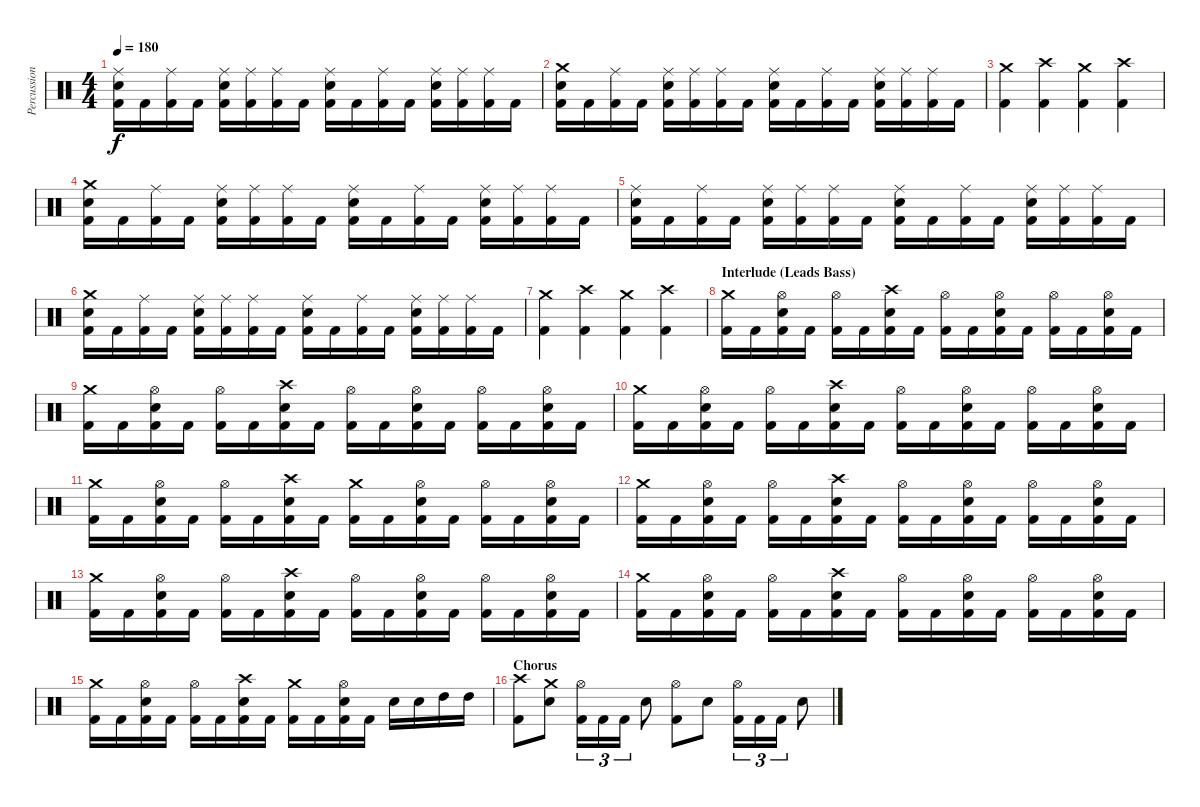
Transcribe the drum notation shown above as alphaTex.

\track ("Percussion" "Percussion") {instrument percussion}
\staff {score}
\articulation defaults
\ts (4 4)
\tempo 180
\clef neutral
\ks c
("Ride (middle)" "Snare (hit) 2" "Kick (hit) 2").16{dy f} "Kick (hit) 2".16 ("Ride (middle)" "Kick (hit) 2").16 "Kick (hit) 2".16 ("Ride (middle)" "Snare (hit) 2" "Kick (hit) 2").16 ("Ride (middle)" "Kick (hit) 2").16 ("Ride (middle)" "Kick (hit) 2").16 "Kick (hit) 2".16 ("Ride (middle)" "Snare (hit) 2" "Kick (hit) 2").16 "Kick (hit) 2".16 ("Ride (middle)" "Kick (hit) 2").16 "Kick (hit) 2".16 ("Ride (middle)" "Snare (hit) 2" "Kick (hit) 2").16 ("Ride (middle)" "Kick (hit) 2").16 ("Ride (middle)" "Kick (hit) 2").16 "Kick (hit) 2".16 |
("Crash medium (hit)" "Snare (hit) 2" "Kick (hit) 2").16 "Kick (hit) 2".16 ("Ride (middle)" "Kick (hit) 2").16 "Kick (hit) 2".16 ("Ride (middle)" "Snare (hit) 2" "Kick (hit) 2").16 ("Ride (middle)" "Kick (hit) 2").16 ("Ride (middle)" "Kick (hit) 2").16 "Kick (hit) 2".16 ("Ride (middle)" "Snare (hit) 2" "Kick (hit) 2").16 "Kick (hit) 2".16 ("Ride (middle)" "Kick (hit) 2").16 "Kick (hit) 2".16 ("Ride (middle)" "Snare (hit) 2" "Kick (hit) 2").16 ("Ride (middle)" "Kick (hit) 2").16 ("Ride (middle)" "Kick (hit) 2").16 "Kick (hit) 2".16 |
("Crash medium (hit)" "Kick (hit) 2").4 ("Crash high (hit)" "Kick (hit) 2").4 ("Crash medium (hit)" "Kick (hit) 2").4 ("Crash high (hit)" "Kick (hit) 2").4 |
("Crash medium (hit)" "Snare (hit) 2" "Kick (hit) 2").16 "Kick (hit) 2".16 ("Ride (middle)" "Kick (hit) 2").16 "Kick (hit) 2".16 ("Ride (middle)" "Snare (hit) 2" "Kick (hit) 2").16 ("Ride (middle)" "Kick (hit) 2").16 ("Ride (middle)" "Kick (hit) 2").16 "Kick (hit) 2".16 ("Ride (middle)" "Snare (hit) 2" "Kick (hit) 2").16 "Kick (hit) 2".16 ("Ride (middle)" "Kick (hit) 2").16 "Kick (hit) 2".16 ("Ride (middle)" "Snare (hit) 2" "Kick (hit) 2").16 ("Ride (middle)" "Kick (hit) 2").16 ("Ride (middle)" "Kick (hit) 2").16 "Kick (hit) 2".16 |
("Ride (middle)" "Snare (hit) 2" "Kick (hit) 2").16 "Kick (hit) 2".16 ("Ride (middle)" "Kick (hit) 2").16 "Kick (hit) 2".16 ("Ride (middle)" "Snare (hit) 2" "Kick (hit) 2").16 ("Ride (middle)" "Kick (hit) 2").16 ("Ride (middle)" "Kick (hit) 2").16 "Kick (hit) 2".16 ("Ride (middle)" "Snare (hit) 2" "Kick (hit) 2").16 "Kick (hit) 2".16 ("Ride (middle)" "Kick (hit) 2").16 "Kick (hit) 2".16 ("Ride (middle)" "Snare (hit) 2" "Kick (hit) 2").16 ("Ride (middle)" "Kick (hit) 2").16 ("Ride (middle)" "Kick (hit) 2").16 "Kick (hit) 2".16 |
("Crash medium (hit)" "Snare (hit) 2" "Kick (hit) 2").16 "Kick (hit) 2".16 ("Ride (middle)" "Kick (hit) 2").16 "Kick (hit) 2".16 ("Ride (middle)" "Snare (hit) 2" "Kick (hit) 2").16 ("Ride (middle)" "Kick (hit) 2").16 ("Ride (middle)" "Kick (hit) 2").16 "Kick (hit) 2".16 ("Ride (middle)" "Snare (hit) 2" "Kick (hit) 2").16 "Kick (hit) 2".16 ("Ride (middle)" "Kick (hit) 2").16 "Kick (hit) 2".16 ("Ride (middle)" "Snare (hit) 2" "Kick (hit) 2").16 ("Ride (middle)" "Kick (hit) 2").16 ("Ride (middle)" "Kick (hit) 2").16 "Kick (hit) 2".16 |
("Crash medium (hit)" "Kick (hit) 2").4 ("Crash high (hit)" "Kick (hit) 2").4 ("Crash medium (hit)" "Kick (hit) 2").4 ("Crash high (hit)" "Kick (hit) 2").4 |
\section ("" "Interlude (Leads Bass)")
("Crash medium (hit)" "Kick (hit) 2").16 "Kick (hit) 2".16 ("Hi-Hat (open)" "Snare (hit) 2" "Kick (hit) 2").16 "Kick (hit) 2".16 ("Hi-Hat (open)" "Kick (hit) 2").16 "Kick (hit) 2".16 ("Crash high (hit)" "Snare (hit) 2" "Kick (hit) 2").16 "Kick (hit) 2".16 ("Hi-Hat (open)" "Kick (hit) 2").16 "Kick (hit) 2".16 ("Hi-Hat (open)" "Snare (hit) 2" "Kick (hit) 2").16 "Kick (hit) 2".16 ("Hi-Hat (open)" "Kick (hit) 2").16 "Kick (hit) 2".16 ("Hi-Hat (open)" "Snare (hit) 2" "Kick (hit) 2").16 "Kick (hit) 2".16 |
("Crash medium (hit)" "Kick (hit) 2").16 "Kick (hit) 2".16 ("Hi-Hat (open)" "Snare (hit) 2" "Kick (hit) 2").16 "Kick (hit) 2".16 ("Hi-Hat (open)" "Kick (hit) 2").16 "Kick (hit) 2".16 ("Crash high (hit)" "Snare (hit) 2" "Kick (hit) 2").16 "Kick (hit) 2".16 ("Hi-Hat (open)" "Kick (hit) 2").16 "Kick (hit) 2".16 ("Hi-Hat (open)" "Snare (hit) 2" "Kick (hit) 2").16 "Kick (hit) 2".16 ("Hi-Hat (open)" "Kick (hit) 2").16 "Kick (hit) 2".16 ("Hi-Hat (open)" "Snare (hit) 2" "Kick (hit) 2").16 "Kick (hit) 2".16 |
("Crash medium (hit)" "Kick (hit) 2").16 "Kick (hit) 2".16 ("Hi-Hat (open)" "Snare (hit) 2" "Kick (hit) 2").16 "Kick (hit) 2".16 ("Hi-Hat (open)" "Kick (hit) 2").16 "Kick (hit) 2".16 ("Crash high (hit)" "Snare (hit) 2" "Kick (hit) 2").16 "Kick (hit) 2".16 ("Hi-Hat (open)" "Kick (hit) 2").16 "Kick (hit) 2".16 ("Hi-Hat (open)" "Snare (hit) 2" "Kick (hit) 2").16 "Kick (hit) 2".16 ("Hi-Hat (open)" "Kick (hit) 2").16 "Kick (hit) 2".16 ("Hi-Hat (open)" "Snare (hit) 2" "Kick (hit) 2").16 "Kick (hit) 2".16 |
("Crash medium (hit)" "Kick (hit) 2").16 "Kick (hit) 2".16 ("Hi-Hat (open)" "Snare (hit) 2" "Kick (hit) 2").16 "Kick (hit) 2".16 ("Hi-Hat (open)" "Kick (hit) 2").16 "Kick (hit) 2".16 ("Crash high (hit)" "Snare (hit) 2" "Kick (hit) 2").16 "Kick (hit) 2".16 ("Crash medium (hit)" "Kick (hit) 2").16 "Kick (hit) 2".16 ("Hi-Hat (open)" "Snare (hit) 2" "Kick (hit) 2").16 "Kick (hit) 2".16 ("Hi-Hat (open)" "Kick (hit) 2").16 "Kick (hit) 2".16 ("Hi-Hat (open)" "Snare (hit) 2" "Kick (hit) 2").16 "Kick (hit) 2".16 |
("Crash medium (hit)" "Kick (hit) 2").16 "Kick (hit) 2".16 ("Hi-Hat (open)" "Snare (hit) 2" "Kick (hit) 2").16 "Kick (hit) 2".16 ("Hi-Hat (open)" "Kick (hit) 2").16 "Kick (hit) 2".16 ("Crash high (hit)" "Snare (hit) 2" "Kick (hit) 2").16 "Kick (hit) 2".16 ("Hi-Hat (open)" "Kick (hit) 2").16 "Kick (hit) 2".16 ("Hi-Hat (open)" "Snare (hit) 2" "Kick (hit) 2").16 "Kick (hit) 2".16 ("Hi-Hat (open)" "Kick (hit) 2").16 "Kick (hit) 2".16 ("Hi-Hat (open)" "Snare (hit) 2" "Kick (hit) 2").16 "Kick (hit) 2".16 |
("Crash medium (hit)" "Kick (hit) 2").16 "Kick (hit) 2".16 ("Hi-Hat (open)" "Snare (hit) 2" "Kick (hit) 2").16 "Kick (hit) 2".16 ("Hi-Hat (open)" "Kick (hit) 2").16 "Kick (hit) 2".16 ("Crash high (hit)" "Snare (hit) 2" "Kick (hit) 2").16 "Kick (hit) 2".16 ("Hi-Hat (open)" "Kick (hit) 2").16 "Kick (hit) 2".16 ("Hi-Hat (open)" "Snare (hit) 2" "Kick (hit) 2").16 "Kick (hit) 2".16 ("Hi-Hat (open)" "Kick (hit) 2").16 "Kick (hit) 2".16 ("Hi-Hat (open)" "Snare (hit) 2" "Kick (hit) 2").16 "Kick (hit) 2".16 |
("Crash medium (hit)" "Kick (hit) 2").16 "Kick (hit) 2".16 ("Hi-Hat (open)" "Snare (hit) 2" "Kick (hit) 2").16 "Kick (hit) 2".16 ("Hi-Hat (open)" "Kick (hit) 2").16 "Kick (hit) 2".16 ("Crash high (hit)" "Snare (hit) 2" "Kick (hit) 2").16 "Kick (hit) 2".16 ("Hi-Hat (open)" "Kick (hit) 2").16 "Kick (hit) 2".16 ("Hi-Hat (open)" "Snare (hit) 2" "Kick (hit) 2").16 "Kick (hit) 2".16 ("Hi-Hat (open)" "Kick (hit) 2").16 "Kick (hit) 2".16 ("Hi-Hat (open)" "Snare (hit) 2" "Kick (hit) 2").16 "Kick (hit) 2".16 |
("Crash medium (hit)" "Kick (hit) 2").16 "Kick (hit) 2".16 ("Hi-Hat (open)" "Snare (hit) 2" "Kick (hit) 2").16 "Kick (hit) 2".16 ("Hi-Hat (open)" "Kick (hit) 2").16 "Kick (hit) 2".16 ("Crash high (hit)" "Snare (hit) 2" "Kick (hit) 2").16 "Kick (hit) 2".16 ("Crash medium (hit)" "Kick (hit) 2").16 "Kick (hit) 2".16 ("Hi-Hat (open)" "Snare (hit) 2" "Kick (hit) 2").16 "Kick (hit) 2".16 "Snare (hit) 2".16 "Snare (hit) 2".16 "High Tom (hit)".16 "High Tom (hit)".16 |
\section ("" "Chorus")
("Crash high (hit)" "Kick (hit) 2").8 ("Crash medium (hit)" "Snare (hit) 2").8 ("Hi-Hat (open)" "Kick (hit) 2").16{tu (3 2)} "Kick (hit) 2".16{tu (3 2)} "Kick (hit) 2".16{tu (3 2)} "Snare (hit) 2".8 ("Hi-Hat (open)" "Kick (hit) 2").8 "Snare (hit) 2".8 ("Hi-Hat (open)" "Kick (hit) 2").16{tu (3 2)} "Kick (hit) 2".16{tu (3 2)} "Kick (hit) 2".16{tu (3 2)} "Snare (hit) 2".8
